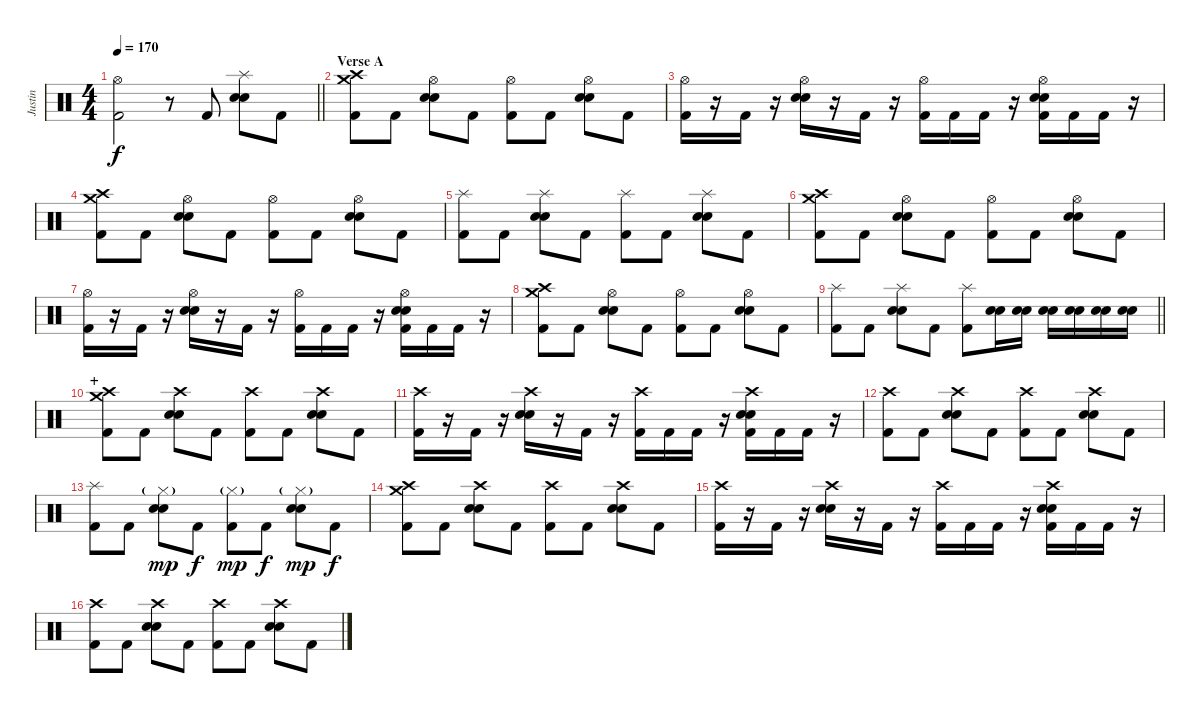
\track ("Justin" "Justin") {instrument percussion}
\staff {score}
\articulation defaults
\ts (4 4)
\tempo 170
\clef neutral
\barLineRight lightlight
\ks c
("Hi-Hat (open)" "Kick (hit) 2").2{dy f} r.8 "Kick (hit) 2".8 ("Splash (hit)" "Electric Snare (hit)" "Snare (hit) 2").8 "Kick (hit) 2".8 |
\section ("" "Verse A")
("Crash high (hit)" "Crash medium (hit)" "Kick (hit) 2").8 "Kick (hit) 2".8 ("Hi-Hat (open)" "Electric Snare (hit)" "Snare (hit) 2").8 "Kick (hit) 2".8 ("Hi-Hat (open)" "Kick (hit) 2").8 "Kick (hit) 2".8 ("Hi-Hat (open)" "Electric Snare (hit)" "Snare (hit) 2").8 "Kick (hit) 2".8 |
("Hi-Hat (open)" "Kick (hit) 2").16 r.16 "Kick (hit) 2".16 r.16 ("Hi-Hat (open)" "Electric Snare (hit)" "Snare (hit) 2").16 r.16 "Kick (hit) 2".16 r.16 ("Hi-Hat (open)" "Kick (hit) 2").16 "Kick (hit) 2".16 "Kick (hit) 2".16 r.16 ("Hi-Hat (open)" "Electric Snare (hit)" "Snare (hit) 2" "Kick (hit) 2").16 "Kick (hit) 2".16 "Kick (hit) 2".16 r.16 |
("Crash high (hit)" "Crash medium (hit)" "Kick (hit) 2").8 "Kick (hit) 2".8 ("Hi-Hat (open)" "Electric Snare (hit)" "Snare (hit) 2").8 "Kick (hit) 2".8 ("Hi-Hat (open)" "Kick (hit) 2").8 "Kick (hit) 2".8 ("Hi-Hat (open)" "Electric Snare (hit)" "Snare (hit) 2").8 "Kick (hit) 2".8 |
("Splash (hit)" "Kick (hit) 2").8 "Kick (hit) 2".8 ("Splash (hit)" "Electric Snare (hit)" "Snare (hit) 2").8 "Kick (hit) 2".8 ("Splash (hit)" "Kick (hit) 2").8 "Kick (hit) 2".8 ("Splash (hit)" "Electric Snare (hit)" "Snare (hit) 2").8 "Kick (hit) 2".8 |
("Crash high (hit)" "Crash medium (hit)" "Kick (hit) 2").8 "Kick (hit) 2".8 ("Hi-Hat (open)" "Electric Snare (hit)" "Snare (hit) 2").8 "Kick (hit) 2".8 ("Hi-Hat (open)" "Kick (hit) 2").8 "Kick (hit) 2".8 ("Hi-Hat (open)" "Electric Snare (hit)" "Snare (hit) 2").8 "Kick (hit) 2".8 |
("Hi-Hat (open)" "Kick (hit) 2").16 r.16 "Kick (hit) 2".16 r.16 ("Hi-Hat (open)" "Electric Snare (hit)" "Snare (hit) 2").16 r.16 "Kick (hit) 2".16 r.16 ("Hi-Hat (open)" "Kick (hit) 2").16 "Kick (hit) 2".16 "Kick (hit) 2".16 r.16 ("Hi-Hat (open)" "Electric Snare (hit)" "Snare (hit) 2" "Kick (hit) 2").16 "Kick (hit) 2".16 "Kick (hit) 2".16 r.16 |
("Crash high (hit)" "Crash medium (hit)" "Kick (hit) 2").8 "Kick (hit) 2".8 ("Hi-Hat (open)" "Electric Snare (hit)" "Snare (hit) 2").8 "Kick (hit) 2".8 ("Hi-Hat (open)" "Kick (hit) 2").8 "Kick (hit) 2".8 ("Hi-Hat (open)" "Electric Snare (hit)" "Snare (hit) 2").8 "Kick (hit) 2".8 |
\barLineRight lightlight
("Splash (hit)" "Kick (hit) 2").8 "Kick (hit) 2".8 ("Splash (hit)" "Electric Snare (hit)" "Snare (hit) 2").8 "Kick (hit) 2".8 ("Splash (hit)" "Kick (hit) 2").8 ("Electric Snare (hit)" "Snare (hit) 2").16 ("Electric Snare (hit)" "Snare (hit) 2").16 ("Electric Snare (hit)" "Snare (hit) 2").16 ("Electric Snare (hit)" "Snare (hit) 2").16 ("Electric Snare (hit)" "Snare (hit) 2").16 ("Electric Snare (hit)" "Snare (hit) 2").16 |
\section ("" "+")
("Crash high (hit)" "Crash medium (hit)" "Kick (hit) 2").8 "Kick (hit) 2".8 ("Crash high (hit)" "Electric Snare (hit)" "Snare (hit) 2").8 "Kick (hit) 2".8 ("Crash high (hit)" "Kick (hit) 2").8 "Kick (hit) 2".8 ("Crash high (hit)" "Electric Snare (hit)" "Snare (hit) 2").8 "Kick (hit) 2".8 |
("Crash high (hit)" "Kick (hit) 2").16 r.16 "Kick (hit) 2".16 r.16 ("Crash high (hit)" "Electric Snare (hit)" "Snare (hit) 2").16 r.16 "Kick (hit) 2".16 r.16 ("Crash high (hit)" "Kick (hit) 2").16 "Kick (hit) 2".16 "Kick (hit) 2".16 r.16 ("Crash high (hit)" "Electric Snare (hit)" "Snare (hit) 2" "Kick (hit) 2").16 "Kick (hit) 2".16 "Kick (hit) 2".16 r.16 |
("Crash high (hit)" "Kick (hit) 2").8 "Kick (hit) 2".8 ("Crash high (hit)" "Electric Snare (hit)" "Snare (hit) 2").8 "Kick (hit) 2".8 ("Crash high (hit)" "Kick (hit) 2").8 "Kick (hit) 2".8 ("Crash high (hit)" "Electric Snare (hit)" "Snare (hit) 2").8 "Kick (hit) 2".8 |
("Splash (hit)" "Kick (hit) 2").8 "Kick (hit) 2".8 ("Hi-Hat (closed)"{g} "Electric Snare (hit)" "Snare (hit) 2").8{dy mp} "Kick (hit) 2".8{dy f} ("Hi-Hat (closed)"{g} "Kick (hit) 2").8{dy mp} "Kick (hit) 2".8{dy f} ("Hi-Hat (closed)"{g} "Electric Snare (hit)" "Snare (hit) 2").8{dy mp} "Kick (hit) 2".8{dy f} |
("Crash high (hit)" "Crash medium (hit)" "Kick (hit) 2").8 "Kick (hit) 2".8 ("Crash high (hit)" "Electric Snare (hit)" "Snare (hit) 2").8 "Kick (hit) 2".8 ("Crash high (hit)" "Kick (hit) 2").8 "Kick (hit) 2".8 ("Crash high (hit)" "Electric Snare (hit)" "Snare (hit) 2").8 "Kick (hit) 2".8 |
("Crash high (hit)" "Kick (hit) 2").16 r.16 "Kick (hit) 2".16 r.16 ("Crash high (hit)" "Electric Snare (hit)" "Snare (hit) 2").16 r.16 "Kick (hit) 2".16 r.16 ("Crash high (hit)" "Kick (hit) 2").16 "Kick (hit) 2".16 "Kick (hit) 2".16 r.16 ("Crash high (hit)" "Electric Snare (hit)" "Snare (hit) 2" "Kick (hit) 2").16 "Kick (hit) 2".16 "Kick (hit) 2".16 r.16 |
("Crash high (hit)" "Kick (hit) 2").8 "Kick (hit) 2".8 ("Crash high (hit)" "Electric Snare (hit)" "Snare (hit) 2").8 "Kick (hit) 2".8 ("Crash high (hit)" "Kick (hit) 2").8 "Kick (hit) 2".8 ("Crash high (hit)" "Electric Snare (hit)" "Snare (hit) 2").8 "Kick (hit) 2".8
